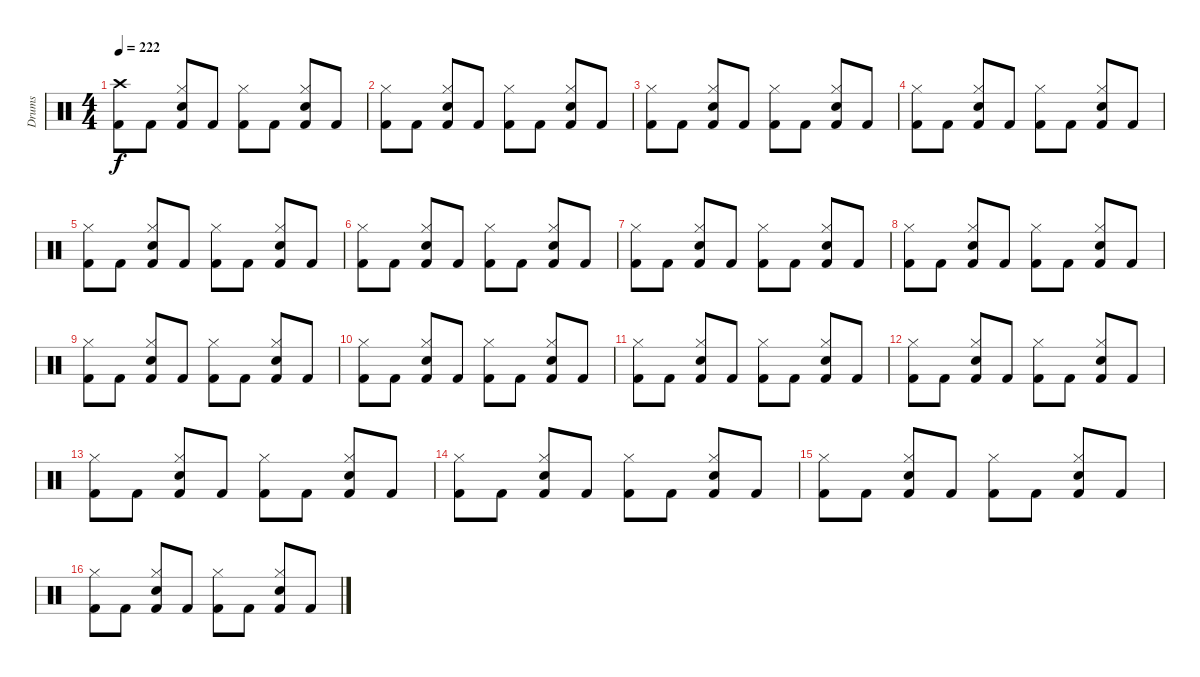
\track ("Drums" "Drums") {instrument percussion}
\staff {score}
\articulation defaults
\ts (4 4)
\tempo 222
\clef neutral
\ks c
("Crash high (hit)" "Kick (hit) 2").8{dy f} "Kick (hit) 2".8 ("Hi-Hat (closed)" "Electric Snare (hit)" "Kick (hit) 2").8 "Kick (hit) 2".8 ("Hi-Hat (closed)" "Kick (hit) 2").8 "Kick (hit) 2".8 ("Hi-Hat (closed)" "Electric Snare (hit)" "Kick (hit) 2").8 "Kick (hit) 2".8 |
("Hi-Hat (closed)" "Kick (hit) 2").8 "Kick (hit) 2".8 ("Hi-Hat (closed)" "Electric Snare (hit)" "Kick (hit) 2").8 "Kick (hit) 2".8 ("Hi-Hat (closed)" "Kick (hit) 2").8 "Kick (hit) 2".8 ("Hi-Hat (closed)" "Electric Snare (hit)" "Kick (hit) 2").8 "Kick (hit) 2".8 |
("Hi-Hat (closed)" "Kick (hit) 2").8 "Kick (hit) 2".8 ("Hi-Hat (closed)" "Electric Snare (hit)" "Kick (hit) 2").8 "Kick (hit) 2".8 ("Hi-Hat (closed)" "Kick (hit) 2").8 "Kick (hit) 2".8 ("Hi-Hat (closed)" "Electric Snare (hit)" "Kick (hit) 2").8 "Kick (hit) 2".8 |
("Hi-Hat (closed)" "Kick (hit) 2").8 "Kick (hit) 2".8 ("Hi-Hat (closed)" "Electric Snare (hit)" "Kick (hit) 2").8 "Kick (hit) 2".8 ("Hi-Hat (closed)" "Kick (hit) 2").8 "Kick (hit) 2".8 ("Hi-Hat (closed)" "Electric Snare (hit)" "Kick (hit) 2").8 "Kick (hit) 2".8 |
("Hi-Hat (closed)" "Kick (hit) 2").8 "Kick (hit) 2".8 ("Hi-Hat (closed)" "Electric Snare (hit)" "Kick (hit) 2").8 "Kick (hit) 2".8 ("Hi-Hat (closed)" "Kick (hit) 2").8 "Kick (hit) 2".8 ("Hi-Hat (closed)" "Electric Snare (hit)" "Kick (hit) 2").8 "Kick (hit) 2".8 |
("Hi-Hat (closed)" "Kick (hit) 2").8 "Kick (hit) 2".8 ("Hi-Hat (closed)" "Electric Snare (hit)" "Kick (hit) 2").8 "Kick (hit) 2".8 ("Hi-Hat (closed)" "Kick (hit) 2").8 "Kick (hit) 2".8 ("Hi-Hat (closed)" "Electric Snare (hit)" "Kick (hit) 2").8 "Kick (hit) 2".8 |
("Hi-Hat (closed)" "Kick (hit) 2").8 "Kick (hit) 2".8 ("Hi-Hat (closed)" "Electric Snare (hit)" "Kick (hit) 2").8 "Kick (hit) 2".8 ("Hi-Hat (closed)" "Kick (hit) 2").8 "Kick (hit) 2".8 ("Hi-Hat (closed)" "Electric Snare (hit)" "Kick (hit) 2").8 "Kick (hit) 2".8 |
("Hi-Hat (closed)" "Kick (hit) 2").8 "Kick (hit) 2".8 ("Hi-Hat (closed)" "Electric Snare (hit)" "Kick (hit) 2").8 "Kick (hit) 2".8 ("Hi-Hat (closed)" "Kick (hit) 2").8 "Kick (hit) 2".8 ("Hi-Hat (closed)" "Electric Snare (hit)" "Kick (hit) 2").8 "Kick (hit) 2".8 |
("Hi-Hat (closed)" "Kick (hit) 2").8 "Kick (hit) 2".8 ("Hi-Hat (closed)" "Electric Snare (hit)" "Kick (hit) 2").8 "Kick (hit) 2".8 ("Hi-Hat (closed)" "Kick (hit) 2").8 "Kick (hit) 2".8 ("Hi-Hat (closed)" "Electric Snare (hit)" "Kick (hit) 2").8 "Kick (hit) 2".8 |
("Hi-Hat (closed)" "Kick (hit) 2").8 "Kick (hit) 2".8 ("Hi-Hat (closed)" "Electric Snare (hit)" "Kick (hit) 2").8 "Kick (hit) 2".8 ("Hi-Hat (closed)" "Kick (hit) 2").8 "Kick (hit) 2".8 ("Hi-Hat (closed)" "Electric Snare (hit)" "Kick (hit) 2").8 "Kick (hit) 2".8 |
("Hi-Hat (closed)" "Kick (hit) 2").8 "Kick (hit) 2".8 ("Hi-Hat (closed)" "Electric Snare (hit)" "Kick (hit) 2").8 "Kick (hit) 2".8 ("Hi-Hat (closed)" "Kick (hit) 2").8 "Kick (hit) 2".8 ("Hi-Hat (closed)" "Electric Snare (hit)" "Kick (hit) 2").8 "Kick (hit) 2".8 |
("Hi-Hat (closed)" "Kick (hit) 2").8 "Kick (hit) 2".8 ("Hi-Hat (closed)" "Electric Snare (hit)" "Kick (hit) 2").8 "Kick (hit) 2".8 ("Hi-Hat (closed)" "Kick (hit) 2").8 "Kick (hit) 2".8 ("Hi-Hat (closed)" "Electric Snare (hit)" "Kick (hit) 2").8 "Kick (hit) 2".8 |
("Hi-Hat (closed)" "Kick (hit) 2").8 "Kick (hit) 2".8 ("Hi-Hat (closed)" "Electric Snare (hit)" "Kick (hit) 2").8 "Kick (hit) 2".8 ("Hi-Hat (closed)" "Kick (hit) 2").8 "Kick (hit) 2".8 ("Hi-Hat (closed)" "Electric Snare (hit)" "Kick (hit) 2").8 "Kick (hit) 2".8 |
("Hi-Hat (closed)" "Kick (hit) 2").8 "Kick (hit) 2".8 ("Hi-Hat (closed)" "Electric Snare (hit)" "Kick (hit) 2").8 "Kick (hit) 2".8 ("Hi-Hat (closed)" "Kick (hit) 2").8 "Kick (hit) 2".8 ("Hi-Hat (closed)" "Electric Snare (hit)" "Kick (hit) 2").8 "Kick (hit) 2".8 |
("Hi-Hat (closed)" "Kick (hit) 2").8 "Kick (hit) 2".8 ("Hi-Hat (closed)" "Electric Snare (hit)" "Kick (hit) 2").8 "Kick (hit) 2".8 ("Hi-Hat (closed)" "Kick (hit) 2").8 "Kick (hit) 2".8 ("Hi-Hat (closed)" "Electric Snare (hit)" "Kick (hit) 2").8 "Kick (hit) 2".8 |
("Hi-Hat (closed)" "Kick (hit) 2").8 "Kick (hit) 2".8 ("Hi-Hat (closed)" "Electric Snare (hit)" "Kick (hit) 2").8 "Kick (hit) 2".8 ("Hi-Hat (closed)" "Kick (hit) 2").8 "Kick (hit) 2".8 ("Hi-Hat (closed)" "Electric Snare (hit)" "Kick (hit) 2").8 "Kick (hit) 2".8
